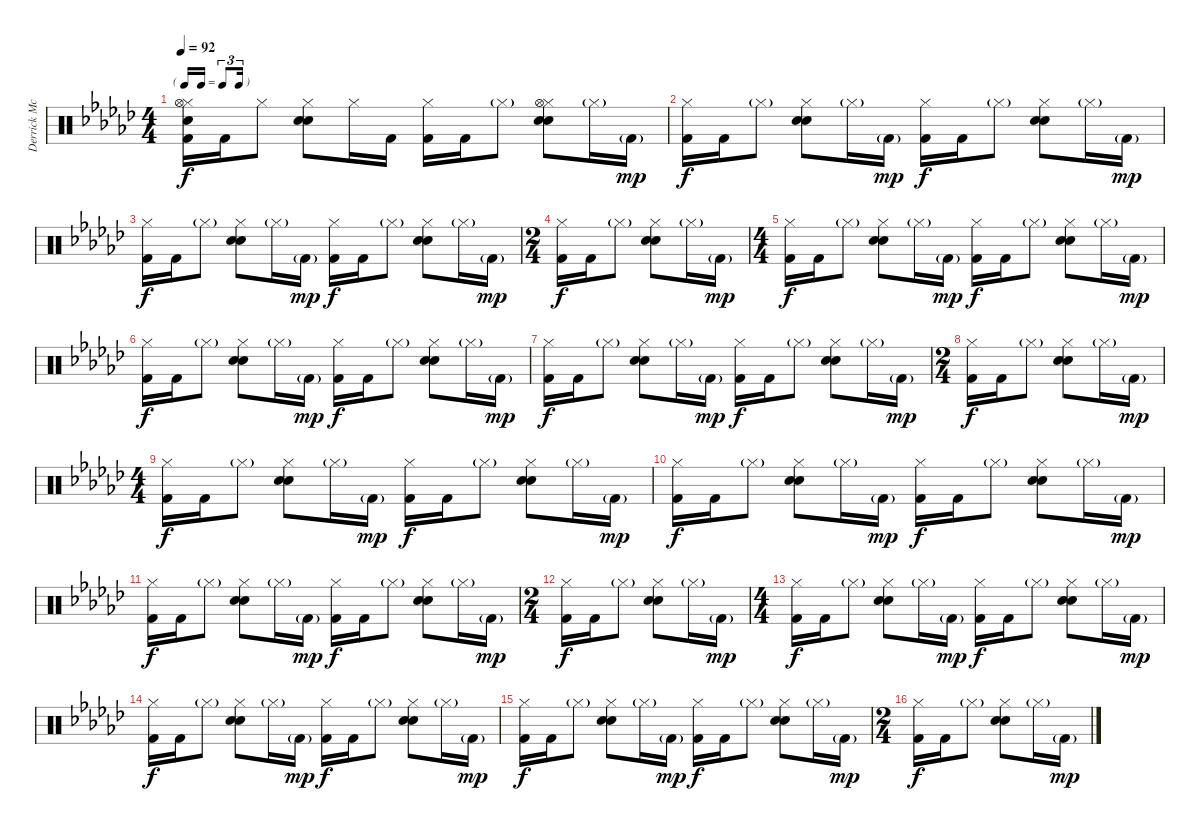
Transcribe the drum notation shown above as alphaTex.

\track ("Derrick McKenzie" "Derrick Mc") {instrument percussion}
\staff {score}
\articulation defaults
\ts (4 4)
\tf triplet16th
\tempo 92
\clef neutral
\ks ebminor
("Hi-Hat (closed)" "Hi-Hat (open)" "Electric Snare (hit)" "Kick (hit) 2").16{dy f} "Kick (hit) 2".16 "Hi-Hat (closed)".8 ("Hi-Hat (closed)" "Hand Clap (hit)" "Electric Snare (hit)").8 "Hi-Hat (closed)".16 "Kick (hit) 2".16 ("Hi-Hat (closed)" "Kick (hit) 2").16 "Kick (hit) 2".16 "Hi-Hat (closed)"{g}.8 ("Hi-Hat (closed)" "Hi-Hat (open)" "Hand Clap (hit)" "Electric Snare (hit)").8 "Hi-Hat (closed)"{g}.16 "Kick (hit) 2"{g}.16{dy mp} |
("Hi-Hat (closed)" "Kick (hit) 2").16{dy f} "Kick (hit) 2".16 "Hi-Hat (closed)"{g}.8 ("Hi-Hat (closed)" "Hand Clap (hit)" "Electric Snare (hit)").8 "Hi-Hat (closed)"{g}.16 "Kick (hit) 2"{g}.16{dy mp} ("Hi-Hat (closed)" "Kick (hit) 2").16{dy f} "Kick (hit) 2".16 "Hi-Hat (closed)"{g}.8 ("Hi-Hat (closed)" "Hand Clap (hit)" "Electric Snare (hit)").8 "Hi-Hat (closed)"{g}.16 "Kick (hit) 2"{g}.16{dy mp} |
("Hi-Hat (closed)" "Kick (hit) 2").16{dy f} "Kick (hit) 2".16 "Hi-Hat (closed)"{g}.8 ("Hi-Hat (closed)" "Hand Clap (hit)" "Electric Snare (hit)").8 "Hi-Hat (closed)"{g}.16 "Kick (hit) 2"{g}.16{dy mp} ("Hi-Hat (closed)" "Kick (hit) 2").16{dy f} "Kick (hit) 2".16 "Hi-Hat (closed)"{g}.8 ("Hi-Hat (closed)" "Hand Clap (hit)" "Electric Snare (hit)").8 "Hi-Hat (closed)"{g}.16 "Kick (hit) 2"{g}.16{dy mp} |
\ts (2 4)
("Hi-Hat (closed)" "Kick (hit) 2").16{dy f} "Kick (hit) 2".16 "Hi-Hat (closed)"{g}.8 ("Hi-Hat (closed)" "Hand Clap (hit)" "Electric Snare (hit)").8 "Hi-Hat (closed)"{g}.16 "Kick (hit) 2"{g}.16{dy mp} |
\ts (4 4)
("Hi-Hat (closed)" "Kick (hit) 2").16{dy f} "Kick (hit) 2".16 "Hi-Hat (closed)"{g}.8 ("Hi-Hat (closed)" "Hand Clap (hit)" "Electric Snare (hit)").8 "Hi-Hat (closed)"{g}.16 "Kick (hit) 2"{g}.16{dy mp} ("Hi-Hat (closed)" "Kick (hit) 2").16{dy f} "Kick (hit) 2".16 "Hi-Hat (closed)"{g}.8 ("Hi-Hat (closed)" "Hand Clap (hit)" "Electric Snare (hit)").8 "Hi-Hat (closed)"{g}.16 "Kick (hit) 2"{g}.16{dy mp} |
("Hi-Hat (closed)" "Kick (hit) 2").16{dy f} "Kick (hit) 2".16 "Hi-Hat (closed)"{g}.8 ("Hi-Hat (closed)" "Hand Clap (hit)" "Electric Snare (hit)").8 "Hi-Hat (closed)"{g}.16 "Kick (hit) 2"{g}.16{dy mp} ("Hi-Hat (closed)" "Kick (hit) 2").16{dy f} "Kick (hit) 2".16 "Hi-Hat (closed)"{g}.8 ("Hi-Hat (closed)" "Hand Clap (hit)" "Electric Snare (hit)").8 "Hi-Hat (closed)"{g}.16 "Kick (hit) 2"{g}.16{dy mp} |
("Hi-Hat (closed)" "Kick (hit) 2").16{dy f} "Kick (hit) 2".16 "Hi-Hat (closed)"{g}.8 ("Hi-Hat (closed)" "Hand Clap (hit)" "Electric Snare (hit)").8 "Hi-Hat (closed)"{g}.16 "Kick (hit) 2"{g}.16{dy mp} ("Hi-Hat (closed)" "Kick (hit) 2").16{dy f} "Kick (hit) 2".16 "Hi-Hat (closed)"{g}.8 ("Hi-Hat (closed)" "Hand Clap (hit)" "Electric Snare (hit)").8 "Hi-Hat (closed)"{g}.16 "Kick (hit) 2"{g}.16{dy mp} |
\ts (2 4)
("Hi-Hat (closed)" "Kick (hit) 2").16{dy f} "Kick (hit) 2".16 "Hi-Hat (closed)"{g}.8 ("Hi-Hat (closed)" "Hand Clap (hit)" "Electric Snare (hit)").8 "Hi-Hat (closed)"{g}.16 "Kick (hit) 2"{g}.16{dy mp} |
\ts (4 4)
("Hi-Hat (closed)" "Kick (hit) 2").16{dy f} "Kick (hit) 2".16 "Hi-Hat (closed)"{g}.8 ("Hi-Hat (closed)" "Hand Clap (hit)" "Electric Snare (hit)").8 "Hi-Hat (closed)"{g}.16 "Kick (hit) 2"{g}.16{dy mp} ("Hi-Hat (closed)" "Kick (hit) 2").16{dy f} "Kick (hit) 2".16 "Hi-Hat (closed)"{g}.8 ("Hi-Hat (closed)" "Hand Clap (hit)" "Electric Snare (hit)").8 "Hi-Hat (closed)"{g}.16 "Kick (hit) 2"{g}.16{dy mp} |
("Hi-Hat (closed)" "Kick (hit) 2").16{dy f} "Kick (hit) 2".16 "Hi-Hat (closed)"{g}.8 ("Hi-Hat (closed)" "Hand Clap (hit)" "Electric Snare (hit)").8 "Hi-Hat (closed)"{g}.16 "Kick (hit) 2"{g}.16{dy mp} ("Hi-Hat (closed)" "Kick (hit) 2").16{dy f} "Kick (hit) 2".16 "Hi-Hat (closed)"{g}.8 ("Hi-Hat (closed)" "Hand Clap (hit)" "Electric Snare (hit)").8 "Hi-Hat (closed)"{g}.16 "Kick (hit) 2"{g}.16{dy mp} |
("Hi-Hat (closed)" "Kick (hit) 2").16{dy f} "Kick (hit) 2".16 "Hi-Hat (closed)"{g}.8 ("Hi-Hat (closed)" "Hand Clap (hit)" "Electric Snare (hit)").8 "Hi-Hat (closed)"{g}.16 "Kick (hit) 2"{g}.16{dy mp} ("Hi-Hat (closed)" "Kick (hit) 2").16{dy f} "Kick (hit) 2".16 "Hi-Hat (closed)"{g}.8 ("Hi-Hat (closed)" "Hand Clap (hit)" "Electric Snare (hit)").8 "Hi-Hat (closed)"{g}.16 "Kick (hit) 2"{g}.16{dy mp} |
\ts (2 4)
("Hi-Hat (closed)" "Kick (hit) 2").16{dy f} "Kick (hit) 2".16 "Hi-Hat (closed)"{g}.8 ("Hi-Hat (closed)" "Hand Clap (hit)" "Electric Snare (hit)").8 "Hi-Hat (closed)"{g}.16 "Kick (hit) 2"{g}.16{dy mp} |
\ts (4 4)
("Hi-Hat (closed)" "Kick (hit) 2").16{dy f} "Kick (hit) 2".16 "Hi-Hat (closed)"{g}.8 ("Hi-Hat (closed)" "Hand Clap (hit)" "Electric Snare (hit)").8 "Hi-Hat (closed)"{g}.16 "Kick (hit) 2"{g}.16{dy mp} ("Hi-Hat (closed)" "Kick (hit) 2").16{dy f} "Kick (hit) 2".16 "Hi-Hat (closed)"{g}.8 ("Hi-Hat (closed)" "Hand Clap (hit)" "Electric Snare (hit)").8 "Hi-Hat (closed)"{g}.16 "Kick (hit) 2"{g}.16{dy mp} |
("Hi-Hat (closed)" "Kick (hit) 2").16{dy f} "Kick (hit) 2".16 "Hi-Hat (closed)"{g}.8 ("Hi-Hat (closed)" "Hand Clap (hit)" "Electric Snare (hit)").8 "Hi-Hat (closed)"{g}.16 "Kick (hit) 2"{g}.16{dy mp} ("Hi-Hat (closed)" "Kick (hit) 2").16{dy f} "Kick (hit) 2".16 "Hi-Hat (closed)"{g}.8 ("Hi-Hat (closed)" "Hand Clap (hit)" "Electric Snare (hit)").8 "Hi-Hat (closed)"{g}.16 "Kick (hit) 2"{g}.16{dy mp} |
("Hi-Hat (closed)" "Kick (hit) 2").16{dy f} "Kick (hit) 2".16 "Hi-Hat (closed)"{g}.8 ("Hi-Hat (closed)" "Hand Clap (hit)" "Electric Snare (hit)").8 "Hi-Hat (closed)"{g}.16 "Kick (hit) 2"{g}.16{dy mp} ("Hi-Hat (closed)" "Kick (hit) 2").16{dy f} "Kick (hit) 2".16 "Hi-Hat (closed)"{g}.8 ("Hi-Hat (closed)" "Hand Clap (hit)" "Electric Snare (hit)").8 "Hi-Hat (closed)"{g}.16 "Kick (hit) 2"{g}.16{dy mp} |
\ts (2 4)
("Hi-Hat (closed)" "Kick (hit) 2").16{dy f} "Kick (hit) 2".16 "Hi-Hat (closed)"{g}.8 ("Hi-Hat (closed)" "Hand Clap (hit)" "Electric Snare (hit)").8 "Hi-Hat (closed)"{g}.16 "Kick (hit) 2"{g}.16{dy mp}
